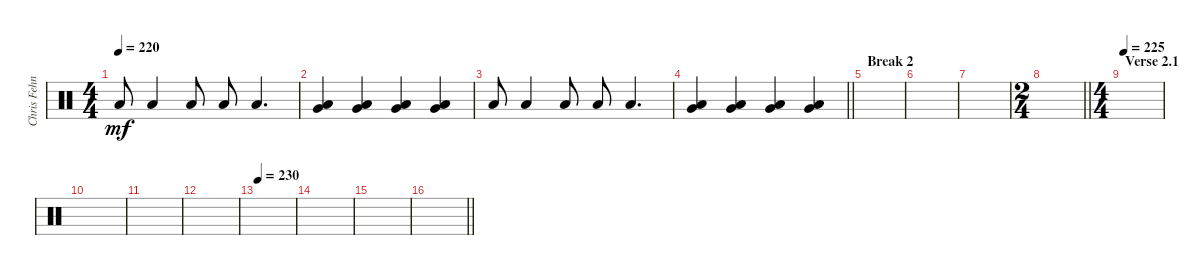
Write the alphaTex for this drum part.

\track ("Chris Fehn" "Chris Fehn") {instrument percussion}
\staff {score}
\articulation defaults
\ts (4 4)
\tempo 220
\clef neutral
\ks c "Low Floor Tom (hit)".8{dy mf} "Low Floor Tom (hit)".4 "Low Floor Tom (hit)".8 "Low Floor Tom (hit)".8 "Low Floor Tom (hit)".4{d}
|
("Very Low Tom (hit)" "Low Floor Tom (hit)").4 ("Very Low Tom (hit)" "Low Floor Tom (hit)").4 ("Very Low Tom (hit)" "Low Floor Tom (hit)").4 ("Very Low Tom (hit)" "Low Floor Tom (hit)").4 |
"Low Floor Tom (hit)".8 "Low Floor Tom (hit)".4 "Low Floor Tom (hit)".8 "Low Floor Tom (hit)".8 "Low Floor Tom (hit)".4{d} |
\barLineRight lightlight
("Very Low Tom (hit)" "Low Floor Tom (hit)").4 ("Very Low Tom (hit)" "Low Floor Tom (hit)").4 ("Very Low Tom (hit)" "Low Floor Tom (hit)").4 ("Very Low Tom (hit)" "Low Floor Tom (hit)").4 |
\section ("" "Break 2")
|
|
|
\ts (2 4)
\barLineRight lightlight
|
\ts (4 4)
\section ("" "Verse 2.1")
\tempo 225
|
|
|
|
\tempo 230
|
|
|
\barLineRight lightlight
